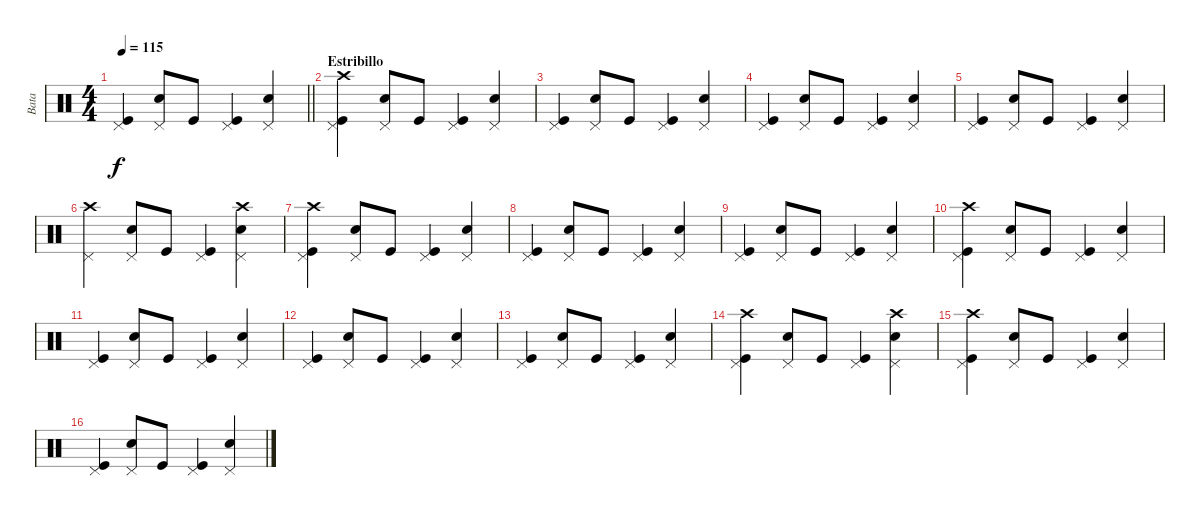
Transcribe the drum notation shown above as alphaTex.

\track ("Bata" "Bata") {instrument percussion}
\staff {score}
\articulation defaults
\ts (4 4)
\tempo 115
\clef neutral
\barLineRight lightlight
\ks c
("Kick (hit)" "Pedal Hi-Hat (hit)").4{dy f} ("Snare (hit) 2" "Pedal Hi-Hat (hit)").8 "Kick (hit)".8 ("Kick (hit)" "Pedal Hi-Hat (hit)").4 ("Snare (hit) 2" "Pedal Hi-Hat (hit)").4 |
\section ("" "Estribillo")
("Kick (hit)" "Crash high (hit)" "Pedal Hi-Hat (hit)").4 ("Snare (hit) 2" "Pedal Hi-Hat (hit)").8 "Kick (hit)".8 ("Kick (hit)" "Pedal Hi-Hat (hit)").4 ("Snare (hit) 2" "Pedal Hi-Hat (hit)").4 |
("Kick (hit)" "Pedal Hi-Hat (hit)").4 ("Snare (hit) 2" "Pedal Hi-Hat (hit)").8 "Kick (hit)".8 ("Kick (hit)" "Pedal Hi-Hat (hit)").4 ("Snare (hit) 2" "Pedal Hi-Hat (hit)").4 |
("Kick (hit)" "Pedal Hi-Hat (hit)").4 ("Snare (hit) 2" "Pedal Hi-Hat (hit)").8 "Kick (hit)".8 ("Kick (hit)" "Pedal Hi-Hat (hit)").4 ("Snare (hit) 2" "Pedal Hi-Hat (hit)").4 |
("Kick (hit)" "Pedal Hi-Hat (hit)").4 ("Snare (hit) 2" "Pedal Hi-Hat (hit)").8 "Kick (hit)".8 ("Kick (hit)" "Pedal Hi-Hat (hit)").4 ("Snare (hit) 2" "Pedal Hi-Hat (hit)").4 |
("Crash high (hit)" "Pedal Hi-Hat (hit)").4 ("Snare (hit) 2" "Pedal Hi-Hat (hit)").8 "Kick (hit)".8 ("Kick (hit)" "Pedal Hi-Hat (hit)").4 ("Snare (hit) 2" "Crash high (hit)" "Pedal Hi-Hat (hit)").4 |
("Kick (hit)" "Crash high (hit)" "Pedal Hi-Hat (hit)").4 ("Snare (hit) 2" "Pedal Hi-Hat (hit)").8 "Kick (hit)".8 ("Kick (hit)" "Pedal Hi-Hat (hit)").4 ("Snare (hit) 2" "Pedal Hi-Hat (hit)").4 |
("Kick (hit)" "Pedal Hi-Hat (hit)").4 ("Snare (hit) 2" "Pedal Hi-Hat (hit)").8 "Kick (hit)".8 ("Kick (hit)" "Pedal Hi-Hat (hit)").4 ("Snare (hit) 2" "Pedal Hi-Hat (hit)").4 |
("Kick (hit)" "Pedal Hi-Hat (hit)").4 ("Snare (hit) 2" "Pedal Hi-Hat (hit)").8 "Kick (hit)".8 ("Kick (hit)" "Pedal Hi-Hat (hit)").4 ("Snare (hit) 2" "Pedal Hi-Hat (hit)").4 |
("Kick (hit)" "Crash high (hit)" "Pedal Hi-Hat (hit)").4 ("Snare (hit) 2" "Pedal Hi-Hat (hit)").8 "Kick (hit)".8 ("Kick (hit)" "Pedal Hi-Hat (hit)").4 ("Snare (hit) 2" "Pedal Hi-Hat (hit)").4 |
("Kick (hit)" "Pedal Hi-Hat (hit)").4 ("Snare (hit) 2" "Pedal Hi-Hat (hit)").8 "Kick (hit)".8 ("Kick (hit)" "Pedal Hi-Hat (hit)").4 ("Snare (hit) 2" "Pedal Hi-Hat (hit)").4 |
("Kick (hit)" "Pedal Hi-Hat (hit)").4 ("Snare (hit) 2" "Pedal Hi-Hat (hit)").8 "Kick (hit)".8 ("Kick (hit)" "Pedal Hi-Hat (hit)").4 ("Snare (hit) 2" "Pedal Hi-Hat (hit)").4 |
("Kick (hit)" "Pedal Hi-Hat (hit)").4 ("Snare (hit) 2" "Pedal Hi-Hat (hit)").8 "Kick (hit)".8 ("Kick (hit)" "Pedal Hi-Hat (hit)").4 ("Snare (hit) 2" "Pedal Hi-Hat (hit)").4 |
("Kick (hit)" "Crash high (hit)" "Pedal Hi-Hat (hit)").4 ("Snare (hit) 2" "Pedal Hi-Hat (hit)").8 "Kick (hit)".8 ("Kick (hit)" "Pedal Hi-Hat (hit)").4 ("Snare (hit) 2" "Crash high (hit)" "Pedal Hi-Hat (hit)").4 |
("Kick (hit)" "Crash high (hit)" "Pedal Hi-Hat (hit)").4 ("Snare (hit) 2" "Pedal Hi-Hat (hit)").8 "Kick (hit)".8 ("Kick (hit)" "Pedal Hi-Hat (hit)").4 ("Snare (hit) 2" "Pedal Hi-Hat (hit)").4 |
("Kick (hit)" "Pedal Hi-Hat (hit)").4 ("Snare (hit) 2" "Pedal Hi-Hat (hit)").8 "Kick (hit)".8 ("Kick (hit)" "Pedal Hi-Hat (hit)").4 ("Snare (hit) 2" "Pedal Hi-Hat (hit)").4
